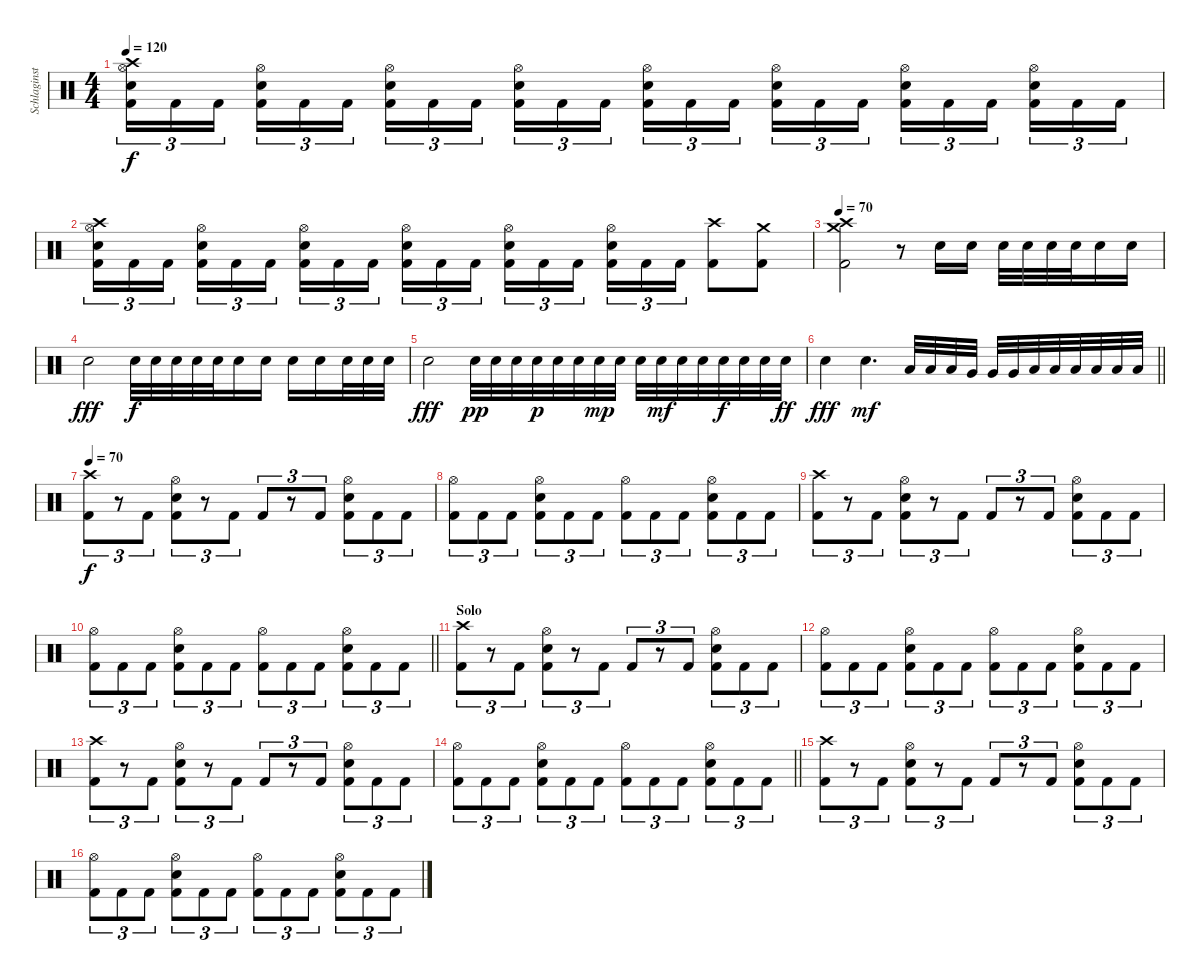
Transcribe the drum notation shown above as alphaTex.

\track ("Schlaginstrumente - Auswahl" "Schlaginst") {instrument percussion}
\staff {score}
\articulation defaults
\ts (4 4)
\tempo 120
\clef neutral
\ks c
("Crash high (hit)" "Hi-Hat (open)" "Snare (hit) 2" "Kick (hit) 2").16{tu (3 2) dy f} "Kick (hit) 2".16{tu (3 2)} "Kick (hit) 2".16{tu (3 2) beam splitsecondary} ("Hi-Hat (open)" "Snare (hit) 2" "Kick (hit) 2").16{tu (3 2)} "Kick (hit) 2".16{tu (3 2)} "Kick (hit) 2".16{tu (3 2)} ("Hi-Hat (open)" "Snare (hit) 2" "Kick (hit) 2").16{tu (3 2)} "Kick (hit) 2".16{tu (3 2)} "Kick (hit) 2".16{tu (3 2) beam splitsecondary} ("Hi-Hat (open)" "Snare (hit) 2" "Kick (hit) 2").16{tu (3 2)} "Kick (hit) 2".16{tu (3 2)} "Kick (hit) 2".16{tu (3 2)} ("Hi-Hat (open)" "Snare (hit) 2" "Kick (hit) 2").16{tu (3 2)} "Kick (hit) 2".16{tu (3 2)} "Kick (hit) 2".16{tu (3 2) beam splitsecondary} ("Hi-Hat (open)" "Snare (hit) 2" "Kick (hit) 2").16{tu (3 2)} "Kick (hit) 2".16{tu (3 2)} "Kick (hit) 2".16{tu (3 2)} ("Hi-Hat (open)" "Snare (hit) 2" "Kick (hit) 2").16{tu (3 2)} "Kick (hit) 2".16{tu (3 2)} "Kick (hit) 2".16{tu (3 2) beam splitsecondary} ("Hi-Hat (open)" "Snare (hit) 2" "Kick (hit) 2").16{tu (3 2)} "Kick (hit) 2".16{tu (3 2)} "Kick (hit) 2".16{tu (3 2)} |
("Crash high (hit)" "Hi-Hat (open)" "Snare (hit) 2" "Kick (hit) 2").16{tu (3 2)} "Kick (hit) 2".16{tu (3 2)} "Kick (hit) 2".16{tu (3 2) beam splitsecondary} ("Hi-Hat (open)" "Snare (hit) 2" "Kick (hit) 2").16{tu (3 2)} "Kick (hit) 2".16{tu (3 2)} "Kick (hit) 2".16{tu (3 2)} ("Hi-Hat (open)" "Snare (hit) 2" "Kick (hit) 2").16{tu (3 2)} "Kick (hit) 2".16{tu (3 2)} "Kick (hit) 2".16{tu (3 2) beam splitsecondary} ("Hi-Hat (open)" "Snare (hit) 2" "Kick (hit) 2").16{tu (3 2)} "Kick (hit) 2".16{tu (3 2)} "Kick (hit) 2".16{tu (3 2)} ("Hi-Hat (open)" "Snare (hit) 2" "Kick (hit) 2").16{tu (3 2)} "Kick (hit) 2".16{tu (3 2)} "Kick (hit) 2".16{tu (3 2) beam splitsecondary} ("Hi-Hat (open)" "Snare (hit) 2" "Kick (hit) 2").16{tu (3 2)} "Kick (hit) 2".16{tu (3 2)} "Kick (hit) 2".16{tu (3 2)} ("Crash high (hit)" "Kick (hit) 2").8 ("Crash medium (hit)" "Kick (hit) 2").8 |
\tempo 70
("Crash high (hit)" "Crash medium (hit)" "Kick (hit) 2").2 r.8 "Snare (hit) 2".16 "Snare (hit) 2".16 "Snare (hit) 2".32 "Snare (hit) 2".32 "Snare (hit) 2".32 "Snare (hit) 2".32 "Snare (hit) 2".16 "Snare (hit) 2".16 |
"Snare (hit) 2".2{dy fff} "Snare (hit) 2".32{dy f} "Snare (hit) 2".32 "Snare (hit) 2".32 "Snare (hit) 2".32 "Snare (hit) 2".32 "Snare (hit) 2".16 "Snare (hit) 2".16 "Snare (hit) 2".16 "Snare (hit) 2".16 "Snare (hit) 2".32 "Snare (hit) 2".32 "Snare (hit) 2".32 |
"Snare (hit) 2".2{dy fff} "Snare (hit) 2".32{dy pp} "Snare (hit) 2".32 "Snare (hit) 2".32 "Snare (hit) 2".32{dy p} "Snare (hit) 2".32 "Snare (hit) 2".32 "Snare (hit) 2".32{dy mp} "Snare (hit) 2".32 "Snare (hit) 2".32 "Snare (hit) 2".32{dy mf} "Snare (hit) 2".32 "Snare (hit) 2".32 "Snare (hit) 2".32{dy f} "Snare (hit) 2".32 "Snare (hit) 2".32 "Snare (hit) 2".32{dy ff} |
\barLineRight lightlight "Snare (hit) 2".4{dy fff} "Snare (hit) 2".4{d dy mf} "Low Tom (hit)".32 "Low Tom (hit)".32 "Low Tom (hit)".32 "Very Low Tom (hit)".32 "Very Low Tom (hit)".32 "Very Low Tom (hit)".32 "Low Floor Tom (hit)".32 "Low Floor Tom (hit)".32 "Low Floor Tom (hit)".32 "Low Tom (hit)".32 "Low Tom (hit)".32 "Low Tom (hit)".32
|
\tempo 70
("Crash high (hit)" "Kick (hit) 2").8{tu (3 2) dy f} r.8{tu (3 2)} "Kick (hit) 2".8{tu (3 2)} ("Hi-Hat (open)" "Snare (hit) 2" "Kick (hit) 2").8{tu (3 2)} r.8{tu (3 2)} "Kick (hit) 2".8{tu (3 2)} "Kick (hit) 2".8{tu (3 2)} r.8{tu (3 2)} "Kick (hit) 2".8{tu (3 2)} ("Hi-Hat (open)" "Snare (hit) 2" "Kick (hit) 2").8{tu (3 2)} "Kick (hit) 2".8{tu (3 2)} "Kick (hit) 2".8{tu (3 2)} |
("Hi-Hat (open)" "Kick (hit) 2").8{tu (3 2)} "Kick (hit) 2".8{tu (3 2)} "Kick (hit) 2".8{tu (3 2)} ("Hi-Hat (open)" "Snare (hit) 2" "Kick (hit) 2").8{tu (3 2)} "Kick (hit) 2".8{tu (3 2)} "Kick (hit) 2".8{tu (3 2)} ("Hi-Hat (open)" "Kick (hit) 2").8{tu (3 2)} "Kick (hit) 2".8{tu (3 2)} "Kick (hit) 2".8{tu (3 2)} ("Hi-Hat (open)" "Snare (hit) 2" "Kick (hit) 2").8{tu (3 2)} "Kick (hit) 2".8{tu (3 2)} "Kick (hit) 2".8{tu (3 2)} |
("Crash high (hit)" "Kick (hit) 2").8{tu (3 2)} r.8{tu (3 2)} "Kick (hit) 2".8{tu (3 2)} ("Hi-Hat (open)" "Snare (hit) 2" "Kick (hit) 2").8{tu (3 2)} r.8{tu (3 2)} "Kick (hit) 2".8{tu (3 2)} "Kick (hit) 2".8{tu (3 2)} r.8{tu (3 2)} "Kick (hit) 2".8{tu (3 2)} ("Hi-Hat (open)" "Snare (hit) 2" "Kick (hit) 2").8{tu (3 2)} "Kick (hit) 2".8{tu (3 2)} "Kick (hit) 2".8{tu (3 2)} |
\barLineRight lightlight
("Hi-Hat (open)" "Kick (hit) 2").8{tu (3 2)} "Kick (hit) 2".8{tu (3 2)} "Kick (hit) 2".8{tu (3 2)} ("Hi-Hat (open)" "Snare (hit) 2" "Kick (hit) 2").8{tu (3 2)} "Kick (hit) 2".8{tu (3 2)} "Kick (hit) 2".8{tu (3 2)} ("Hi-Hat (open)" "Kick (hit) 2").8{tu (3 2)} "Kick (hit) 2".8{tu (3 2)} "Kick (hit) 2".8{tu (3 2)} ("Hi-Hat (open)" "Snare (hit) 2" "Kick (hit) 2").8{tu (3 2)} "Kick (hit) 2".8{tu (3 2)} "Kick (hit) 2".8{tu (3 2)} |
\section ("" "Solo")
("Crash high (hit)" "Kick (hit) 2").8{tu (3 2)} r.8{tu (3 2)} "Kick (hit) 2".8{tu (3 2)} ("Hi-Hat (open)" "Snare (hit) 2" "Kick (hit) 2").8{tu (3 2)} r.8{tu (3 2)} "Kick (hit) 2".8{tu (3 2)} "Kick (hit) 2".8{tu (3 2)} r.8{tu (3 2)} "Kick (hit) 2".8{tu (3 2)} ("Hi-Hat (open)" "Snare (hit) 2" "Kick (hit) 2").8{tu (3 2)} "Kick (hit) 2".8{tu (3 2)} "Kick (hit) 2".8{tu (3 2)} |
("Hi-Hat (open)" "Kick (hit) 2").8{tu (3 2)} "Kick (hit) 2".8{tu (3 2)} "Kick (hit) 2".8{tu (3 2)} ("Hi-Hat (open)" "Snare (hit) 2" "Kick (hit) 2").8{tu (3 2)} "Kick (hit) 2".8{tu (3 2)} "Kick (hit) 2".8{tu (3 2)} ("Hi-Hat (open)" "Kick (hit) 2").8{tu (3 2)} "Kick (hit) 2".8{tu (3 2)} "Kick (hit) 2".8{tu (3 2)} ("Hi-Hat (open)" "Snare (hit) 2" "Kick (hit) 2").8{tu (3 2)} "Kick (hit) 2".8{tu (3 2)} "Kick (hit) 2".8{tu (3 2)} |
("Crash high (hit)" "Kick (hit) 2").8{tu (3 2)} r.8{tu (3 2)} "Kick (hit) 2".8{tu (3 2)} ("Hi-Hat (open)" "Snare (hit) 2" "Kick (hit) 2").8{tu (3 2)} r.8{tu (3 2)} "Kick (hit) 2".8{tu (3 2)} "Kick (hit) 2".8{tu (3 2)} r.8{tu (3 2)} "Kick (hit) 2".8{tu (3 2)} ("Hi-Hat (open)" "Snare (hit) 2" "Kick (hit) 2").8{tu (3 2)} "Kick (hit) 2".8{tu (3 2)} "Kick (hit) 2".8{tu (3 2)} |
\barLineRight lightlight
("Hi-Hat (open)" "Kick (hit) 2").8{tu (3 2)} "Kick (hit) 2".8{tu (3 2)} "Kick (hit) 2".8{tu (3 2)} ("Hi-Hat (open)" "Snare (hit) 2" "Kick (hit) 2").8{tu (3 2)} "Kick (hit) 2".8{tu (3 2)} "Kick (hit) 2".8{tu (3 2)} ("Hi-Hat (open)" "Kick (hit) 2").8{tu (3 2)} "Kick (hit) 2".8{tu (3 2)} "Kick (hit) 2".8{tu (3 2)} ("Hi-Hat (open)" "Snare (hit) 2" "Kick (hit) 2").8{tu (3 2)} "Kick (hit) 2".8{tu (3 2)} "Kick (hit) 2".8{tu (3 2)} |
("Crash high (hit)" "Kick (hit) 2").8{tu (3 2)} r.8{tu (3 2)} "Kick (hit) 2".8{tu (3 2)} ("Hi-Hat (open)" "Snare (hit) 2" "Kick (hit) 2").8{tu (3 2)} r.8{tu (3 2)} "Kick (hit) 2".8{tu (3 2)} "Kick (hit) 2".8{tu (3 2)} r.8{tu (3 2)} "Kick (hit) 2".8{tu (3 2)} ("Hi-Hat (open)" "Snare (hit) 2" "Kick (hit) 2").8{tu (3 2)} "Kick (hit) 2".8{tu (3 2)} "Kick (hit) 2".8{tu (3 2)} |
("Hi-Hat (open)" "Kick (hit) 2").8{tu (3 2)} "Kick (hit) 2".8{tu (3 2)} "Kick (hit) 2".8{tu (3 2)} ("Hi-Hat (open)" "Snare (hit) 2" "Kick (hit) 2").8{tu (3 2)} "Kick (hit) 2".8{tu (3 2)} "Kick (hit) 2".8{tu (3 2)} ("Hi-Hat (open)" "Kick (hit) 2").8{tu (3 2)} "Kick (hit) 2".8{tu (3 2)} "Kick (hit) 2".8{tu (3 2)} ("Hi-Hat (open)" "Snare (hit) 2" "Kick (hit) 2").8{tu (3 2)} "Kick (hit) 2".8{tu (3 2)} "Kick (hit) 2".8{tu (3 2)}
